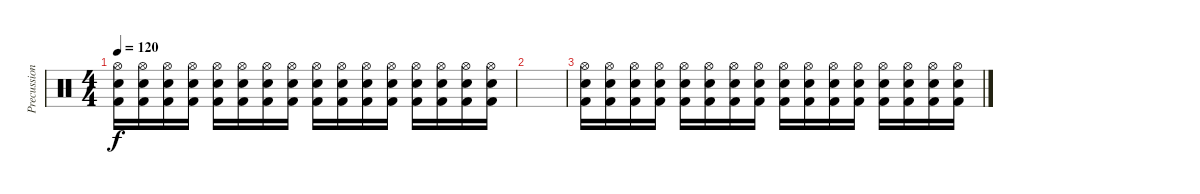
\track ("Precussion" "Precussion") {instrument percussion}
\staff {score}
\articulation defaults
\ts (4 4)
\tempo 120
\clef neutral
\ks c
("Hi-Hat (open)" "Kick (hit) 2" "Electric Snare (hit)").16{dy f} ("Hi-Hat (open)" "Kick (hit) 2" "Electric Snare (hit)").16 ("Hi-Hat (open)" "Kick (hit) 2" "Electric Snare (hit)").16 ("Hi-Hat (open)" "Kick (hit) 2" "Electric Snare (hit)").16 ("Hi-Hat (open)" "Kick (hit) 2" "Electric Snare (hit)").16 ("Hi-Hat (open)" "Kick (hit) 2" "Electric Snare (hit)").16 ("Hi-Hat (open)" "Kick (hit) 2" "Electric Snare (hit)").16 ("Hi-Hat (open)" "Kick (hit) 2" "Electric Snare (hit)").16 ("Hi-Hat (open)" "Kick (hit) 2" "Electric Snare (hit)").16 ("Hi-Hat (open)" "Kick (hit) 2" "Electric Snare (hit)").16 ("Hi-Hat (open)" "Kick (hit) 2" "Electric Snare (hit)").16 ("Hi-Hat (open)" "Kick (hit) 2" "Electric Snare (hit)").16 ("Hi-Hat (open)" "Kick (hit) 2" "Electric Snare (hit)").16 ("Hi-Hat (open)" "Kick (hit) 2" "Electric Snare (hit)").16 ("Hi-Hat (open)" "Kick (hit) 2" "Electric Snare (hit)").16 ("Hi-Hat (open)" "Kick (hit) 2" "Electric Snare (hit)").16 |
|
("Hi-Hat (open)" "Kick (hit) 2" "Electric Snare (hit)").16 ("Hi-Hat (open)" "Kick (hit) 2" "Electric Snare (hit)").16 ("Hi-Hat (open)" "Kick (hit) 2" "Electric Snare (hit)").16 ("Hi-Hat (open)" "Kick (hit) 2" "Electric Snare (hit)").16 ("Hi-Hat (open)" "Kick (hit) 2" "Electric Snare (hit)").16 ("Hi-Hat (open)" "Kick (hit) 2" "Electric Snare (hit)").16 ("Hi-Hat (open)" "Kick (hit) 2" "Electric Snare (hit)").16 ("Hi-Hat (open)" "Kick (hit) 2" "Electric Snare (hit)").16 ("Hi-Hat (open)" "Kick (hit) 2" "Electric Snare (hit)").16 ("Hi-Hat (open)" "Kick (hit) 2" "Electric Snare (hit)").16 ("Hi-Hat (open)" "Kick (hit) 2" "Electric Snare (hit)").16 ("Hi-Hat (open)" "Kick (hit) 2" "Electric Snare (hit)").16 ("Hi-Hat (open)" "Kick (hit) 2" "Electric Snare (hit)").16 ("Hi-Hat (open)" "Kick (hit) 2" "Electric Snare (hit)").16 ("Hi-Hat (open)" "Kick (hit) 2" "Electric Snare (hit)").16 ("Hi-Hat (open)" "Kick (hit) 2" "Electric Snare (hit)").16
